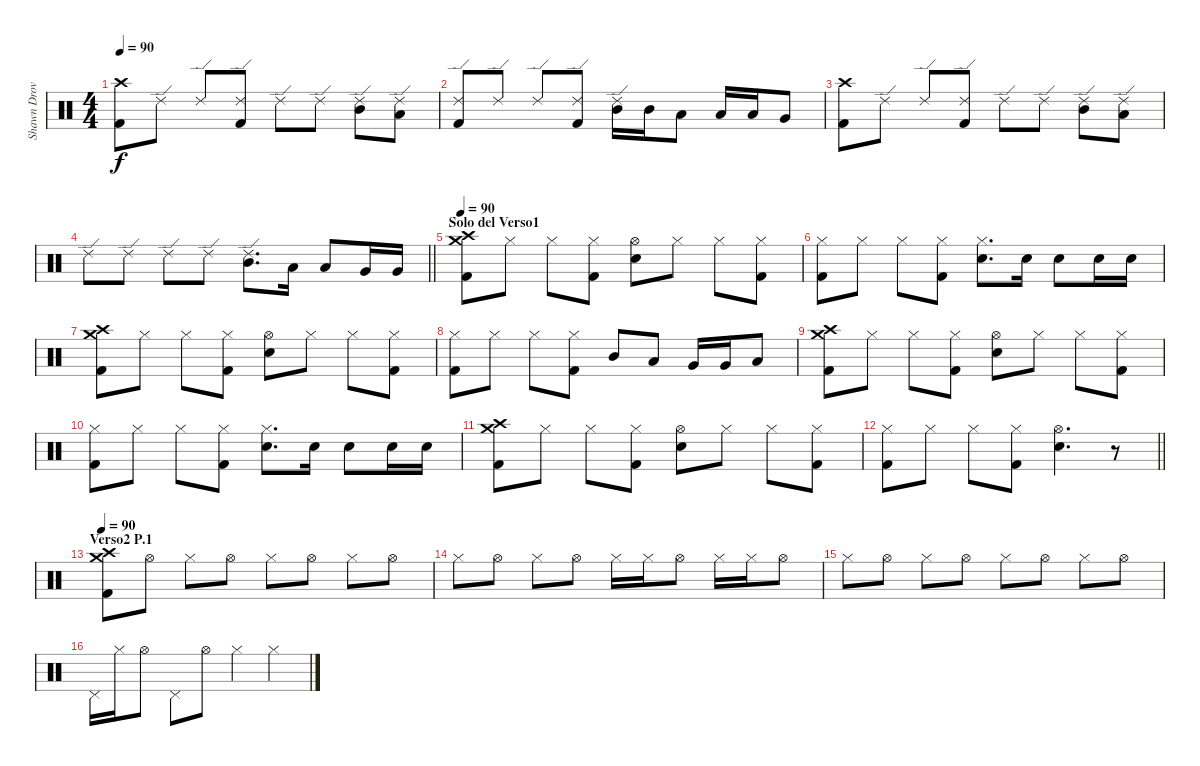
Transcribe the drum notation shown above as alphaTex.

\track ("Shawn Drover" "Shawn Drov") {instrument percussion}
\staff {score}
\articulation defaults
\ts (4 4)
\tempo 90
\clef neutral
\ks c
("Crash high (hit)" "Kick (hit) 2").8{dy f} "Ride (edge) 2".8 "Ride (edge) 2".8 ("Ride (edge) 2" "Kick (hit) 2").8 "Ride (edge) 2".8 "Ride (edge) 2".8 ("Ride (edge) 2" "Mid Tom (hit)").8 ("Ride (edge) 2" "Low Tom (hit)").8 |
("Ride (edge) 2" "Kick (hit) 2").8 "Ride (edge) 2".8 "Ride (edge) 2".8 ("Ride (edge) 2" "Kick (hit) 2").8 ("Ride (edge) 2" "Mid Tom (hit)").16 "Mid Tom (hit)".16 "Low Tom (hit)".8 "Low Tom (hit)".16 "Low Tom (hit)".16 "Very Low Tom (hit)".8 |
("Crash high (hit)" "Kick (hit) 2").8 "Ride (edge) 2".8 "Ride (edge) 2".8 ("Ride (edge) 2" "Kick (hit) 2").8 "Ride (edge) 2".8 "Ride (edge) 2".8 ("Ride (edge) 2" "Mid Tom (hit)").8 ("Ride (edge) 2" "Low Tom (hit)").8 |
\barLineRight lightlight "Ride (edge) 2".8 "Ride (edge) 2".8 "Ride (edge) 2".8 "Ride (edge) 2".8
("Ride (edge) 2" "Mid Tom (hit)").8{d} "Low Tom (hit)".16 "Low Tom (hit)".8 "Very Low Tom (hit)".16 "Very Low Tom (hit)".16 |
\section ("" "Solo del Verso1")
\tempo 90
("Crash high (hit)" "Crash medium (hit)" "Kick (hit) 2").8 "Hi-Hat (closed)".8 "Hi-Hat (closed)".8 ("Hi-Hat (closed)" "Kick (hit) 2").8 ("Hi-Hat (open)" "Electric Snare (hit)").8 "Hi-Hat (closed)".8 "Hi-Hat (closed)".8 ("Hi-Hat (closed)" "Kick (hit) 2").8 |
("Hi-Hat (closed)" "Kick (hit) 2").8 "Hi-Hat (closed)".8 "Hi-Hat (closed)".8 ("Hi-Hat (closed)" "Kick (hit) 2").8 ("Hi-Hat (closed)" "Electric Snare (hit)").8{d} "Electric Snare (hit)".16 "Electric Snare (hit)".8 "Electric Snare (hit)".16 "Electric Snare (hit)".16 |
("Crash high (hit)" "Crash medium (hit)" "Kick (hit) 2").8 "Hi-Hat (closed)".8 "Hi-Hat (closed)".8 ("Hi-Hat (closed)" "Kick (hit) 2").8 ("Hi-Hat (open)" "Electric Snare (hit)").8 "Hi-Hat (closed)".8 "Hi-Hat (closed)".8 ("Hi-Hat (closed)" "Kick (hit) 2").8 |
("Hi-Hat (closed)" "Kick (hit) 2").8 "Hi-Hat (closed)".8 "Hi-Hat (closed)".8 ("Hi-Hat (closed)" "Kick (hit) 2").8 "Mid Tom (hit)".8 "Low Tom (hit)".8 "Very Low Tom (hit)".16 "Very Low Tom (hit)".16 "Low Floor Tom (hit)".8 |
("Crash high (hit)" "Crash medium (hit)" "Kick (hit) 2").8 "Hi-Hat (closed)".8 "Hi-Hat (closed)".8 ("Hi-Hat (closed)" "Kick (hit) 2").8 ("Hi-Hat (open)" "Electric Snare (hit)").8 "Hi-Hat (closed)".8 "Hi-Hat (closed)".8 ("Hi-Hat (closed)" "Kick (hit) 2").8 |
("Hi-Hat (closed)" "Kick (hit) 2").8 "Hi-Hat (closed)".8 "Hi-Hat (closed)".8 ("Hi-Hat (closed)" "Kick (hit) 2").8 ("Hi-Hat (closed)" "Electric Snare (hit)").8{d} "Electric Snare (hit)".16 "Electric Snare (hit)".8 "Electric Snare (hit)".16 "Electric Snare (hit)".16 |
("Crash high (hit)" "Crash medium (hit)" "Kick (hit) 2").8 "Hi-Hat (closed)".8 "Hi-Hat (closed)".8 ("Hi-Hat (closed)" "Kick (hit) 2").8 ("Hi-Hat (open)" "Electric Snare (hit)").8 "Hi-Hat (closed)".8 "Hi-Hat (closed)".8 ("Hi-Hat (closed)" "Kick (hit) 2").8 |
\barLineRight lightlight
("Hi-Hat (closed)" "Kick (hit) 2").8 "Hi-Hat (closed)".8 "Hi-Hat (closed)".8 ("Hi-Hat (closed)" "Kick (hit) 2").8 ("Hi-Hat (open)" "Electric Snare (hit)").4{d} r.8 |
\section ("" "Verso2 P.1")
\tempo 90
("Crash high (hit)" "Crash medium (hit)" "Kick (hit) 2").8 "Hi-Hat (open)".8 "Hi-Hat (closed)".8 "Hi-Hat (open)".8 "Hi-Hat (closed)".8 "Hi-Hat (open)".8 "Hi-Hat (closed)".8 "Hi-Hat (open)".8 |
"Hi-Hat (closed)".8 "Hi-Hat (open)".8 "Hi-Hat (closed)".8 "Hi-Hat (open)".8 "Hi-Hat (closed)".16 "Hi-Hat (closed)".16 "Hi-Hat (open)".8 "Hi-Hat (closed)".16 "Hi-Hat (closed)".16 "Hi-Hat (open)".8 |
"Hi-Hat (closed)".8 "Hi-Hat (open)".8 "Hi-Hat (closed)".8 "Hi-Hat (open)".8 "Hi-Hat (closed)".8 "Hi-Hat (open)".8 "Hi-Hat (closed)".8 "Hi-Hat (open)".8 |
"Pedal Hi-Hat (hit)".16 "Hi-Hat (closed)".16 "Hi-Hat (open)".8 "Pedal Hi-Hat (hit)".8 "Hi-Hat (open)".8 "Hi-Hat (closed)".4 "Hi-Hat (closed)".4
